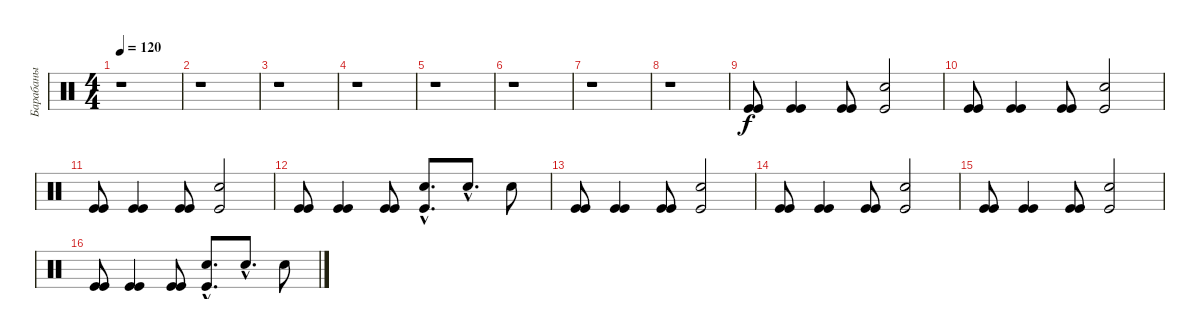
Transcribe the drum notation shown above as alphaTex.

\track ("Барабаны" "Барабаны") {instrument percussion}
\staff {score}
\articulation defaults
\ts (4 4)
\tempo 120
\clef neutral
\ks c
r.1{dy f} |
r.1 |
r.1 |
r.1 |
r.1 |
r.1 |
r.1 |
r.1 |
("Kick (hit)" "Kick (hit)").8{volume 13} ("Kick (hit)" "Kick (hit)").4 ("Kick (hit)" "Kick (hit)").8 ("Kick (hit)" "Snare (hit) 2").2 |
("Kick (hit)" "Kick (hit)").8 ("Kick (hit)" "Kick (hit)").4 ("Kick (hit)" "Kick (hit)").8 ("Kick (hit)" "Snare (hit) 2").2 |
("Kick (hit)" "Kick (hit)").8 ("Kick (hit)" "Kick (hit)").4 ("Kick (hit)" "Kick (hit)").8 ("Kick (hit)" "Snare (hit) 2").2 |
("Kick (hit)" "Kick (hit)").8 ("Kick (hit)" "Kick (hit)").4 ("Kick (hit)" "Kick (hit)").8 ("Kick (hit)"{hac} "Snare (hit) 2"{hac}).8{d} "Snare (hit) 2"{hac}.8{d volume 9} "Snare (hit) 2".8{volume 6} |
("Kick (hit)" "Kick (hit)").8{volume 13} ("Kick (hit)" "Kick (hit)").4 ("Kick (hit)" "Kick (hit)").8 ("Kick (hit)" "Snare (hit) 2").2 |
("Kick (hit)" "Kick (hit)").8 ("Kick (hit)" "Kick (hit)").4 ("Kick (hit)" "Kick (hit)").8 ("Kick (hit)" "Snare (hit) 2").2 |
("Kick (hit)" "Kick (hit)").8 ("Kick (hit)" "Kick (hit)").4 ("Kick (hit)" "Kick (hit)").8 ("Kick (hit)" "Snare (hit) 2").2 |
("Kick (hit)" "Kick (hit)").8 ("Kick (hit)" "Kick (hit)").4 ("Kick (hit)" "Kick (hit)").8 ("Kick (hit)"{hac} "Snare (hit) 2"{hac}).8{d} "Snare (hit) 2"{hac}.8{d volume 9} "Snare (hit) 2".8{volume 6}
